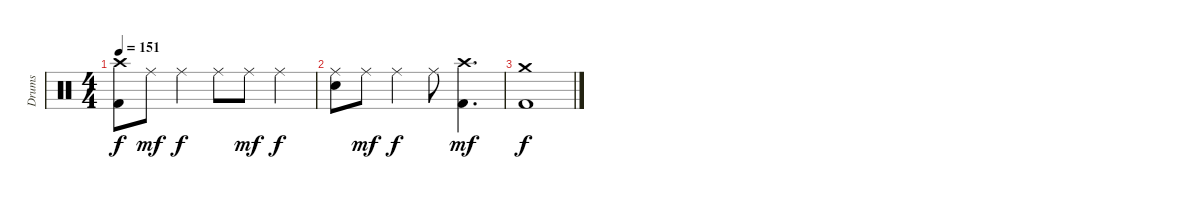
\track ("Drums" "Drums") {instrument percussion}
\staff {score}
\articulation defaults
\ts (4 4)
\tempo 151
\clef neutral
\ks c
("Crash high (hit)" "Kick (hit) 2").8{dy f} "Ride (middle)".8{dy mf} "Ride (middle)".4{dy f} "Ride (middle)".8 "Ride (middle)".8{dy mf} "Ride (middle)".4{dy f} |
("Ride (middle)" "Snare (hit) 2").8 "Ride (middle)".8{dy mf} "Ride (middle)".4{dy f} "Ride (middle)".8 ("Crash high (hit)" "Kick (hit) 2").4{d dy mf} |
("Crash medium (hit)" "Kick (hit) 2").1{dy f}
